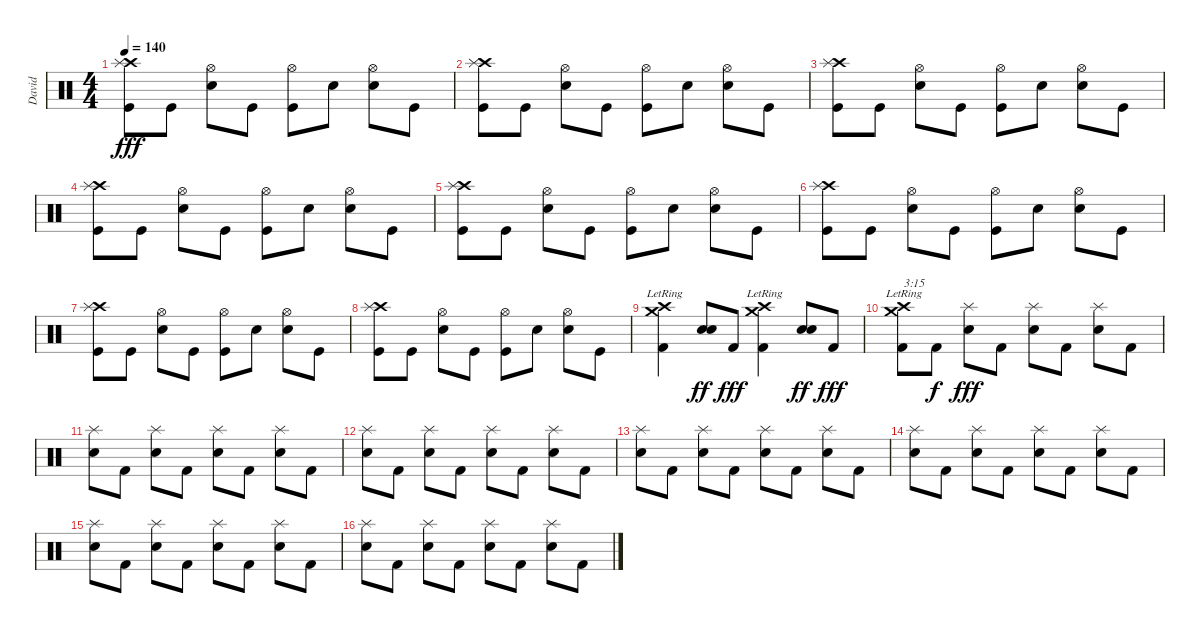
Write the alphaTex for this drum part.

\track ("David " "David ") {instrument percussion}
\staff {score}
\articulation defaults
\ts (4 4)
\tempo 140
\clef neutral
\ks c
("Crash high (hit)" "Splash (hit)" "Kick (hit)").8{dy fff} "Kick (hit)".8 ("Hi-Hat (open)" "Electric Snare (hit)").8 "Kick (hit)".8 ("Hi-Hat (open)" "Kick (hit)").8 "Electric Snare (hit)".8 ("Hi-Hat (open)" "Electric Snare (hit)").8 "Kick (hit)".8 |
("Crash high (hit)" "Splash (hit)" "Kick (hit)").8 "Kick (hit)".8 ("Hi-Hat (open)" "Electric Snare (hit)").8 "Kick (hit)".8 ("Hi-Hat (open)" "Kick (hit)").8 "Electric Snare (hit)".8 ("Hi-Hat (open)" "Electric Snare (hit)").8 "Kick (hit)".8 |
("Crash high (hit)" "Splash (hit)" "Kick (hit)").8 "Kick (hit)".8 ("Hi-Hat (open)" "Electric Snare (hit)").8 "Kick (hit)".8 ("Hi-Hat (open)" "Kick (hit)").8 "Electric Snare (hit)".8 ("Hi-Hat (open)" "Electric Snare (hit)").8 "Kick (hit)".8 |
("Crash high (hit)" "Splash (hit)" "Kick (hit)").8 "Kick (hit)".8 ("Hi-Hat (open)" "Electric Snare (hit)").8 "Kick (hit)".8 ("Hi-Hat (open)" "Kick (hit)").8 "Electric Snare (hit)".8 ("Hi-Hat (open)" "Electric Snare (hit)").8 "Kick (hit)".8 |
("Crash high (hit)" "Splash (hit)" "Kick (hit)").8 "Kick (hit)".8 ("Hi-Hat (open)" "Electric Snare (hit)").8 "Kick (hit)".8 ("Hi-Hat (open)" "Kick (hit)").8 "Electric Snare (hit)".8 ("Hi-Hat (open)" "Electric Snare (hit)").8 "Kick (hit)".8 |
("Crash high (hit)" "Splash (hit)" "Kick (hit)").8 "Kick (hit)".8 ("Hi-Hat (open)" "Electric Snare (hit)").8 "Kick (hit)".8 ("Hi-Hat (open)" "Kick (hit)").8 "Electric Snare (hit)".8 ("Hi-Hat (open)" "Electric Snare (hit)").8 "Kick (hit)".8 |
("Crash high (hit)" "Splash (hit)" "Kick (hit)").8 "Kick (hit)".8 ("Hi-Hat (open)" "Electric Snare (hit)").8 "Kick (hit)".8 ("Hi-Hat (open)" "Kick (hit)").8 "Electric Snare (hit)".8 ("Hi-Hat (open)" "Electric Snare (hit)").8 "Kick (hit)".8 |
("Crash high (hit)" "Splash (hit)" "Kick (hit)").8 "Kick (hit)".8 ("Hi-Hat (open)" "Electric Snare (hit)").8 "Kick (hit)".8 ("Hi-Hat (open)" "Kick (hit)").8 "Electric Snare (hit)".8 ("Hi-Hat (open)" "Electric Snare (hit)").8 "Kick (hit)".8 |
("Crash high (hit)"{lr} "Crash medium (hit)"{lr} "Kick (hit) 2").4 ("Electric Snare (hit)" "Electric Snare (hit)").8{dy ff} "Kick (hit) 2".8{dy fff} ("Crash high (hit)"{lr} "Crash medium (hit)"{lr} "Kick (hit) 2").4 ("Electric Snare (hit)" "Electric Snare (hit)").8{dy ff} "Kick (hit) 2".8{dy fff} |
("Crash high (hit)"{lr} "Crash medium (hit)"{lr} "Kick (hit) 2").8{txt "3:15"} "Kick (hit) 2".8{dy f} ("Electric Snare (hit)" "Splash (hit)").8{dy fff} "Kick (hit) 2".8 ("Electric Snare (hit)" "Splash (hit)").8 "Kick (hit) 2".8 ("Electric Snare (hit)" "Splash (hit)").8 "Kick (hit) 2".8 |
("Electric Snare (hit)" "Splash (hit)").8 "Kick (hit) 2".8 ("Electric Snare (hit)" "Splash (hit)").8 "Kick (hit) 2".8 ("Electric Snare (hit)" "Splash (hit)").8 "Kick (hit) 2".8 ("Electric Snare (hit)" "Splash (hit)").8 "Kick (hit) 2".8 |
("Electric Snare (hit)" "Splash (hit)").8 "Kick (hit) 2".8 ("Electric Snare (hit)" "Splash (hit)").8 "Kick (hit) 2".8 ("Electric Snare (hit)" "Splash (hit)").8 "Kick (hit) 2".8 ("Electric Snare (hit)" "Splash (hit)").8 "Kick (hit) 2".8 |
("Electric Snare (hit)" "Splash (hit)").8 "Kick (hit) 2".8 ("Electric Snare (hit)" "Splash (hit)").8 "Kick (hit) 2".8 ("Electric Snare (hit)" "Splash (hit)").8 "Kick (hit) 2".8 ("Electric Snare (hit)" "Splash (hit)").8 "Kick (hit) 2".8 |
("Electric Snare (hit)" "Splash (hit)").8 "Kick (hit) 2".8 ("Electric Snare (hit)" "Splash (hit)").8 "Kick (hit) 2".8 ("Electric Snare (hit)" "Splash (hit)").8 "Kick (hit) 2".8 ("Electric Snare (hit)" "Splash (hit)").8 "Kick (hit) 2".8 |
("Electric Snare (hit)" "Splash (hit)").8 "Kick (hit) 2".8 ("Electric Snare (hit)" "Splash (hit)").8 "Kick (hit) 2".8 ("Electric Snare (hit)" "Splash (hit)").8 "Kick (hit) 2".8 ("Electric Snare (hit)" "Splash (hit)").8 "Kick (hit) 2".8 |
("Electric Snare (hit)" "Splash (hit)").8 "Kick (hit) 2".8 ("Electric Snare (hit)" "Splash (hit)").8 "Kick (hit) 2".8 ("Electric Snare (hit)" "Splash (hit)").8 "Kick (hit) 2".8 ("Electric Snare (hit)" "Splash (hit)").8 "Kick (hit) 2".8
